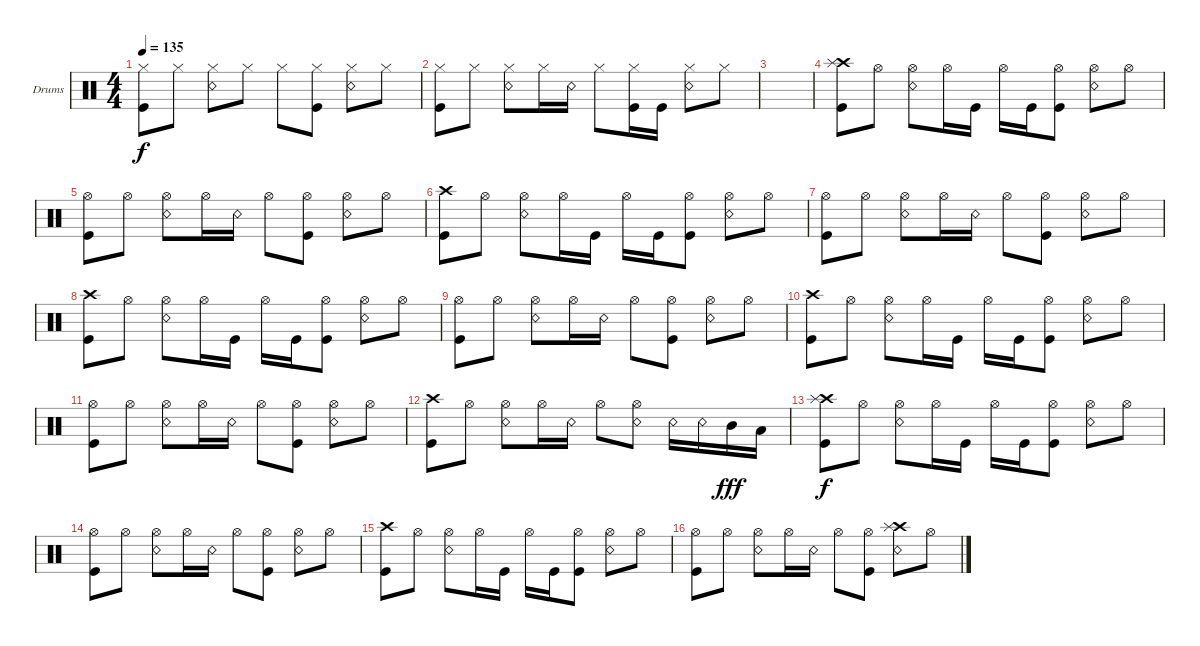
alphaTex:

\defaultSystemsLayout 4
\bracketExtendMode groupsimilarinstruments
\firstSystemTrackNameOrientation horizontal
\otherSystemsTrackNameOrientation horizontal
\track ("Drumkit" "Drums") {instrument percussion}
\staff {score}
\articulation defaults
\ts (4 4)
\tempo 135
\clef neutral
\scale
0.333333
\ks c
("Kick (hit)" "Hi-Hat (closed)").8{dy f} "Hi-Hat (closed)".8 ("Hi-Hat (closed)" "Snare (rim shot)").8 "Hi-Hat (closed)".8 "Hi-Hat (closed)".8 ("Hi-Hat (closed)" "Kick (hit)").8 ("Hi-Hat (closed)" "Snare (rim shot)").8 "Hi-Hat (closed)".8 |
\scale
0.333333 ("Hi-Hat (closed)" "Kick (hit)").8 "Hi-Hat (closed)".8 ("Hi-Hat (closed)" "Snare (rim shot)").8 "Hi-Hat (closed)".16 "Snare (rim shot)".16 "Hi-Hat (closed)".8 ("Kick (hit)" "Hi-Hat (closed)").16 "Kick (hit)".16 ("Snare (rim shot)" "Hi-Hat (closed)").8 "Hi-Hat (closed)".8 |
\scale
0.333333 |
\scale
0.333333 ("Kick (hit)" "Crash high (hit)" "Splash (hit)").8 "Hi-Hat (open)".8 ("Snare (rim shot)" "Hi-Hat (open)").8 "Hi-Hat (open)".16 "Kick (hit)".16 "Hi-Hat (open)".16 "Kick (hit)".16 ("Kick (hit)" "Hi-Hat (open)").8 ("Snare (rim shot)" "Hi-Hat (open)").8 "Hi-Hat (open)".8 |
\scale
0.333333 ("Kick (hit)" "Hi-Hat (open)").8 "Hi-Hat (open)".8 ("Snare (rim shot)" "Hi-Hat (open)").8 "Hi-Hat (open)".16 "Snare (rim shot)".16 "Hi-Hat (open)".8 ("Hi-Hat (open)" "Kick (hit)").8 ("Snare (rim shot)" "Hi-Hat (open)").8 "Hi-Hat (open)".8 |
\scale
0.333333 ("Kick (hit)" "Crash high (hit)").8 "Hi-Hat (open)".8 ("Snare (rim shot)" "Hi-Hat (open)").8 "Hi-Hat (open)".16 "Kick (hit)".16 "Hi-Hat (open)".16 "Kick (hit)".16 ("Kick (hit)" "Hi-Hat (open)").8 ("Snare (rim shot)" "Hi-Hat (open)").8 "Hi-Hat (open)".8 |
\scale
0.333333 ("Kick (hit)" "Hi-Hat (open)").8 "Hi-Hat (open)".8 ("Snare (rim shot)" "Hi-Hat (open)").8 "Hi-Hat (open)".16 "Snare (rim shot)".16 "Hi-Hat (open)".8 ("Hi-Hat (open)" "Kick (hit)").8 ("Snare (rim shot)" "Hi-Hat (open)").8 "Hi-Hat (open)".8 |
\scale
0.333333 ("Kick (hit)" "Crash high (hit)").8 "Hi-Hat (open)".8 ("Snare (rim shot)" "Hi-Hat (open)").8 "Hi-Hat (open)".16 "Kick (hit)".16 "Hi-Hat (open)".16 "Kick (hit)".16 ("Kick (hit)" "Hi-Hat (open)").8 ("Snare (rim shot)" "Hi-Hat (open)").8 "Hi-Hat (open)".8 |
\scale
0.333333 ("Kick (hit)" "Hi-Hat (open)").8 "Hi-Hat (open)".8 ("Snare (rim shot)" "Hi-Hat (open)").8 "Hi-Hat (open)".16 "Snare (rim shot)".16 "Hi-Hat (open)".8 ("Hi-Hat (open)" "Kick (hit)").8 ("Snare (rim shot)" "Hi-Hat (open)").8 "Hi-Hat (open)".8 |
\scale
0.333333 ("Kick (hit)" "Crash high (hit)").8 "Hi-Hat (open)".8 ("Snare (rim shot)" "Hi-Hat (open)").8 "Hi-Hat (open)".16 "Kick (hit)".16 "Hi-Hat (open)".16 "Kick (hit)".16 ("Kick (hit)" "Hi-Hat (open)").8 ("Snare (rim shot)" "Hi-Hat (open)").8 "Hi-Hat (open)".8 |
\scale
0.333333 ("Kick (hit)" "Hi-Hat (open)").8 "Hi-Hat (open)".8 ("Snare (rim shot)" "Hi-Hat (open)").8 "Hi-Hat (open)".16 "Snare (rim shot)".16 "Hi-Hat (open)".8 ("Hi-Hat (open)" "Kick (hit)").8 ("Snare (rim shot)" "Hi-Hat (open)").8 "Hi-Hat (open)".8 |
\scale
0.333333 ("Kick (hit)" "Crash high (hit)").8 "Hi-Hat (open)".8 ("Snare (rim shot)" "Hi-Hat (open)").8 "Hi-Hat (open)".16 "Snare (rim shot)".16 "Hi-Hat (open)".8 ("Hi-Hat (open)" "Snare (rim shot)").8 "Snare (rim shot)".16 "Snare (rim shot)".16 "Mid Tom (hit)".16{dy fff} "Low Tom (hit)".16 |
\scale
0.333333 ("Kick (hit)" "Crash high (hit)" "Splash (hit)").8{dy f} "Hi-Hat (open)".8 ("Snare (rim shot)" "Hi-Hat (open)").8 "Hi-Hat (open)".16 "Kick (hit)".16 "Hi-Hat (open)".16 "Kick (hit)".16 ("Kick (hit)" "Hi-Hat (open)").8 ("Snare (rim shot)" "Hi-Hat (open)").8 "Hi-Hat (open)".8 |
\scale
0.333333 ("Kick (hit)" "Hi-Hat (open)").8 "Hi-Hat (open)".8 ("Snare (rim shot)" "Hi-Hat (open)").8 "Hi-Hat (open)".16 "Snare (rim shot)".16 "Hi-Hat (open)".8 ("Hi-Hat (open)" "Kick (hit)").8 ("Snare (rim shot)" "Hi-Hat (open)").8 "Hi-Hat (open)".8 |
\scale
0.333333 ("Kick (hit)" "Crash high (hit)").8 "Hi-Hat (open)".8 ("Snare (rim shot)" "Hi-Hat (open)").8 "Hi-Hat (open)".16 "Kick (hit)".16 "Hi-Hat (open)".16 "Kick (hit)".16 ("Kick (hit)" "Hi-Hat (open)").8 ("Snare (rim shot)" "Hi-Hat (open)").8 "Hi-Hat (open)".8 |
\scale
0.333333 ("Kick (hit)" "Hi-Hat (open)").8 "Hi-Hat (open)".8 ("Snare (rim shot)" "Hi-Hat (open)").8 "Hi-Hat (open)".16 "Snare (rim shot)".16 "Hi-Hat (open)".8 ("Hi-Hat (open)" "Kick (hit)").8 ("Snare (rim shot)" "Crash high (hit)" "Splash (hit)").8 "Hi-Hat (open)".8
